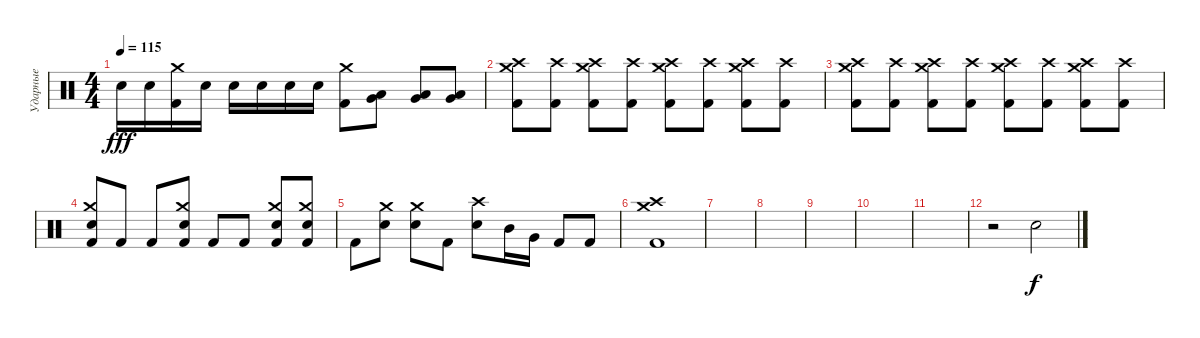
\track ("Ударные" "Ударные") {instrument percussion}
\staff {score}
\articulation defaults
\ts (4 4)
\tempo 115
\clef neutral
\ks c "Snare (hit) 2".16{dy fff} "Snare (hit) 2".16
("Crash medium (hit)" "Kick (hit) 2").16 "Snare (hit) 2".16 "Snare (hit) 2".16 "Snare (hit) 2".16 "Snare (hit) 2".16 "Snare (hit) 2".16 ("Crash medium (hit)" "Kick (hit) 2").8 ("Very Low Tom (hit)" "Low Floor Tom (hit)").8 ("Very Low Tom (hit)" "Low Floor Tom (hit)").8 ("Very Low Tom (hit)" "Low Floor Tom (hit)").8 |
("Crash high (hit)" "Crash medium (hit)" "Kick (hit) 2").8 ("Crash high (hit)" "Kick (hit) 2").8 ("Crash high (hit)" "Crash medium (hit)" "Kick (hit) 2").8 ("Crash high (hit)" "Kick (hit) 2").8 ("Crash high (hit)" "Crash medium (hit)" "Kick (hit) 2").8 ("Crash high (hit)" "Kick (hit) 2").8 ("Crash high (hit)" "Crash medium (hit)" "Kick (hit) 2").8 ("Crash high (hit)" "Kick (hit) 2").8 |
("Crash high (hit)" "Crash medium (hit)" "Kick (hit) 2").8 ("Crash high (hit)" "Kick (hit) 2").8 ("Crash high (hit)" "Crash medium (hit)" "Kick (hit) 2").8 ("Crash high (hit)" "Kick (hit) 2").8 ("Crash high (hit)" "Crash medium (hit)" "Kick (hit) 2").8 ("Crash high (hit)" "Kick (hit) 2").8 ("Crash high (hit)" "Crash medium (hit)" "Kick (hit) 2").8 ("Crash high (hit)" "Kick (hit) 2").8 |
("Crash medium (hit)" "Snare (hit) 2" "Kick (hit) 2").8 "Kick (hit) 2".8 "Kick (hit) 2".8 ("Crash medium (hit)" "Snare (hit) 2" "Kick (hit) 2").8 "Kick (hit) 2".8 "Kick (hit) 2".8 ("Crash medium (hit)" "Snare (hit) 2" "Kick (hit) 2").8 ("Crash medium (hit)" "Snare (hit) 2" "Kick (hit) 2").8 |
"Kick (hit) 2".8 ("Crash medium (hit)" "Snare (hit) 2").8 ("Crash medium (hit)" "Snare (hit) 2").8 "Kick (hit) 2".8 ("Crash high (hit)" "Snare (hit) 2").8 "Mid Tom (hit)".16 "Very Low Tom (hit)".16 "Kick (hit) 2".8 "Kick (hit) 2".8 |
("Crash high (hit)" "Crash medium (hit)" "Kick (hit) 2").1 |
|
|
|
|
|
r.2 "Snare (hit)".2{dy f}
